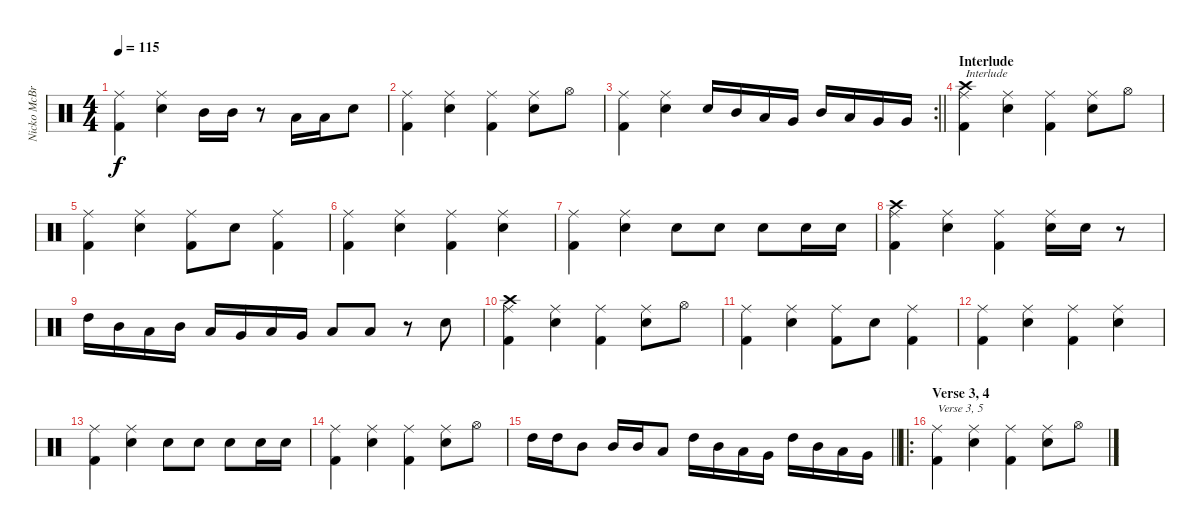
\track ("Nicko McBrain" "Nicko McBr") {instrument percussion}
\staff {score}
\articulation defaults
\ts (4 4)
\tempo 115
\clef neutral
\ks c
("Ride (middle)" "Kick (hit) 2").4{dy f} ("Ride (middle)" "Snare (hit) 2").4 "Mid Tom (hit)".16 "Mid Tom (hit)".16 r.8 "Low Tom (hit)".16 "Low Tom (hit)".16 "Snare (hit) 2".8 |
("Ride (middle)" "Kick (hit) 2").4 ("Ride (middle)" "Snare (hit) 2").4 ("Ride (middle)" "Kick (hit) 2").4 ("Ride (middle)" "Snare (hit) 2").8 "Hi-Hat (open)".8 |
\rc 2
\barLineRight lightlight
("Ride (middle)" "Kick (hit) 2").4 ("Ride (middle)" "Snare (hit) 2").4 "Snare (hit) 2".16 "Mid Tom (hit)".16 "Low Tom (hit)".16 "Very Low Tom (hit)".16 "Mid Tom (hit)".16 "Low Tom (hit)".16 "Very Low Tom (hit)".16 "Very Low Tom (hit)".16 |
\section ("" "Interlude")
("Ride (middle)" "Kick (hit) 2" "Crash high (hit)").4{txt "Interlude"} ("Ride (middle)" "Snare (hit) 2").4 ("Ride (middle)" "Kick (hit) 2").4 ("Ride (middle)" "Snare (hit) 2").8 "Hi-Hat (open)".8 |
("Ride (middle)" "Kick (hit) 2").4 ("Ride (middle)" "Snare (hit) 2").4 ("Ride (middle)" "Kick (hit) 2").8 "Snare (hit) 2".8 ("Ride (middle)" "Kick (hit) 2").4 |
("Ride (middle)" "Kick (hit) 2").4 ("Ride (middle)" "Snare (hit) 2").4 ("Ride (middle)" "Kick (hit) 2").4 ("Ride (middle)" "Snare (hit) 2").4 |
("Ride (middle)" "Kick (hit) 2").4 ("Ride (middle)" "Snare (hit) 2").4 "Snare (hit) 2".8 "Snare (hit) 2".8 "Snare (hit) 2".8 "Snare (hit) 2".16 "Snare (hit) 2".16 |
("Ride (middle)" "Kick (hit) 2" "Crash high (hit)").4 ("Ride (middle)" "Snare (hit) 2").4 ("Ride (middle)" "Kick (hit) 2").4 ("Ride (middle)" "Snare (hit) 2").16 "Snare (hit) 2".16 r.8 |
"High Tom (hit)".16 "Mid Tom (hit)".16 "Low Tom (hit)".16 "Mid Tom (hit)".16 "Low Tom (hit)".16 "Very Low Tom (hit)".16 "Low Tom (hit)".16 "Very Low Tom (hit)".16 "Low Floor Tom (hit)".8 "Low Floor Tom (hit)".8 r.8 "Snare (hit) 2".8 |
("Ride (middle)" "Kick (hit) 2" "Crash high (hit)").4 ("Ride (middle)" "Snare (hit) 2").4 ("Ride (middle)" "Kick (hit) 2").4 ("Ride (middle)" "Snare (hit) 2").8 "Hi-Hat (open)".8 |
("Ride (middle)" "Kick (hit) 2").4 ("Ride (middle)" "Snare (hit) 2").4 ("Ride (middle)" "Kick (hit) 2").8 "Snare (hit) 2".8 ("Ride (middle)" "Kick (hit) 2").4 |
("Ride (middle)" "Kick (hit) 2").4 ("Ride (middle)" "Snare (hit) 2").4 ("Ride (middle)" "Kick (hit) 2").4 ("Ride (middle)" "Snare (hit) 2").4 |
("Ride (middle)" "Kick (hit) 2").4 ("Ride (middle)" "Snare (hit) 2").4 "Snare (hit) 2".8 "Snare (hit) 2".8 "Snare (hit) 2".8 "Snare (hit) 2".16 "Snare (hit) 2".16 |
("Ride (middle)" "Kick (hit) 2").4 ("Ride (middle)" "Snare (hit) 2").4 ("Ride (middle)" "Kick (hit) 2").4 ("Ride (middle)" "Snare (hit) 2").8 "Hi-Hat (open)".8 |
\barLineRight lightlight "High Tom (hit)".16 "High Tom (hit)".16 "Mid Tom (hit)".8 "Mid Tom (hit)".16 "Mid Tom (hit)".16 "Low Tom (hit)".8 "High Tom (hit)".16 "Mid Tom (hit)".16 "Low Tom (hit)".16 "Very Low Tom (hit)".16 "High Tom (hit)".16 "Mid Tom (hit)".16 "Low Tom (hit)".16 "Very Low Tom (hit)".16
|
\ro
\section ("" "Verse 3, 4")
("Ride (middle)" "Kick (hit) 2").4{txt "Verse 3, 5"} ("Ride (middle)" "Snare (hit) 2").4 ("Ride (middle)" "Kick (hit) 2").4 ("Ride (middle)" "Snare (hit) 2").8 "Hi-Hat (open)".8
